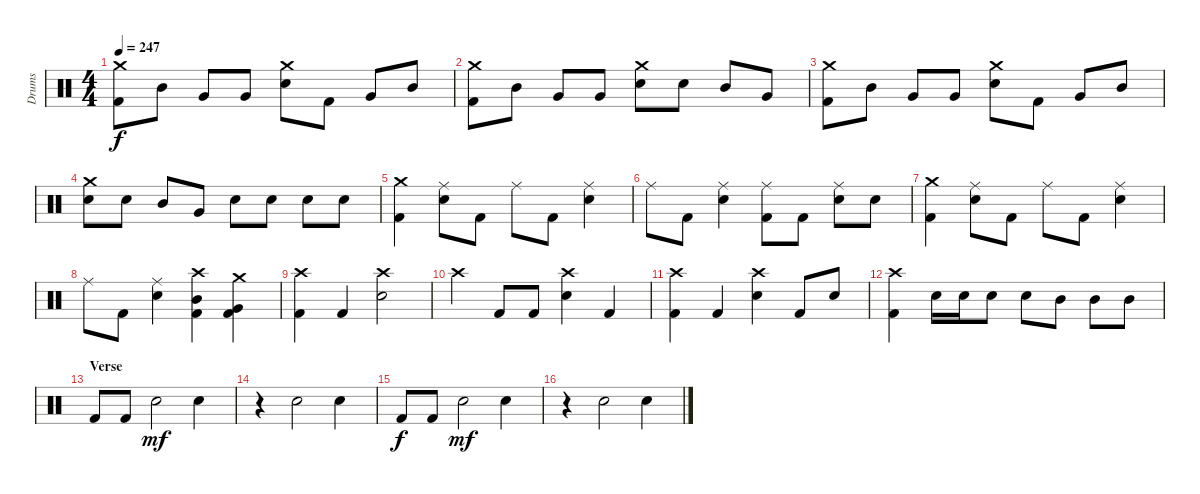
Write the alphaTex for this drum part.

\track ("Drums" "Drums") {instrument percussion}
\staff {score}
\articulation defaults
\ts (4 4)
\tempo 247
\clef neutral
\ks c
("Crash medium (hit)" "Kick (hit) 2").8{dy f} "Mid Tom (hit)".8 "Very Low Tom (hit)".8 "Very Low Tom (hit)".8 ("Crash medium (hit)" "Electric Snare (hit)").8 "Kick (hit) 2".8 "Very Low Tom (hit)".8 "Mid Tom (hit)".8 |
("Crash medium (hit)" "Kick (hit) 2").8 "Mid Tom (hit)".8 "Very Low Tom (hit)".8 "Very Low Tom (hit)".8 ("Crash medium (hit)" "Electric Snare (hit)").8 "Electric Snare (hit)".8 "Mid Tom (hit)".8 "Very Low Tom (hit)".8 |
("Crash medium (hit)" "Kick (hit) 2").8 "Mid Tom (hit)".8 "Very Low Tom (hit)".8 "Very Low Tom (hit)".8 ("Crash medium (hit)" "Electric Snare (hit)").8 "Kick (hit) 2".8 "Very Low Tom (hit)".8 "Mid Tom (hit)".8 |
("Crash medium (hit)" "Electric Snare (hit)").8 "Electric Snare (hit)".8 "Mid Tom (hit)".8 "Very Low Tom (hit)".8 "Electric Snare (hit)".8 "Electric Snare (hit)".8 "Electric Snare (hit)".8 "Electric Snare (hit)".8 |
("Crash medium (hit)" "Kick (hit) 2").4 ("Ride (middle)" "Electric Snare (hit)").8 "Kick (hit) 2".8 "Ride (middle)".8 "Kick (hit) 2".8 ("Ride (middle)" "Electric Snare (hit)").4 |
"Ride (middle)".8 "Kick (hit) 2".8 ("Ride (middle)" "Electric Snare (hit)").4 ("Ride (middle)" "Kick (hit) 2").8 "Kick (hit) 2".8 ("Ride (middle)" "Electric Snare (hit)").8 "Electric Snare (hit)".8 |
("Crash medium (hit)" "Kick (hit) 2").4 ("Ride (middle)" "Electric Snare (hit)").8 "Kick (hit) 2".8 "Ride (middle)".8 "Kick (hit) 2".8 ("Ride (middle)" "Electric Snare (hit)").4 |
"Ride (middle)".8 "Kick (hit) 2".8 ("Ride (middle)" "Electric Snare (hit)").4 ("Crash high (hit)" "Mid Tom (hit)" "Kick (hit) 2").4 ("Crash medium (hit)" "Very Low Tom (hit)" "Kick (hit) 2").4 |
("Crash high (hit)" "Kick (hit) 2").4 "Kick (hit) 2".4 ("Crash high (hit)" "Electric Snare (hit)").2 |
"Crash high (hit)".4 "Kick (hit) 2".8 "Kick (hit) 2".8 ("Crash high (hit)" "Electric Snare (hit)").4 "Kick (hit) 2".4 |
("Crash high (hit)" "Kick (hit) 2").4 "Kick (hit) 2".4 ("Crash high (hit)" "Electric Snare (hit)").4 "Kick (hit) 2".8 "Electric Snare (hit)".8 |
("Crash high (hit)" "Kick (hit) 2").4 "Electric Snare (hit)".16 "Electric Snare (hit)".16 "Electric Snare (hit)".8 "Electric Snare (hit)".8 "Mid Tom (hit)".8 "Mid Tom (hit)".8 "Mid Tom (hit)".8 |
\section ("" "Verse")
"Kick (hit) 2".8 "Kick (hit) 2".8 "Electric Snare (hit)".2{dy mf} "Electric Snare (hit)".4 |
r.4 "Electric Snare (hit)".2 "Electric Snare (hit)".4 |
"Kick (hit) 2".8{dy f} "Kick (hit) 2".8 "Electric Snare (hit)".2{dy mf} "Electric Snare (hit)".4 |
r.4 "Electric Snare (hit)".2 "Electric Snare (hit)".4
